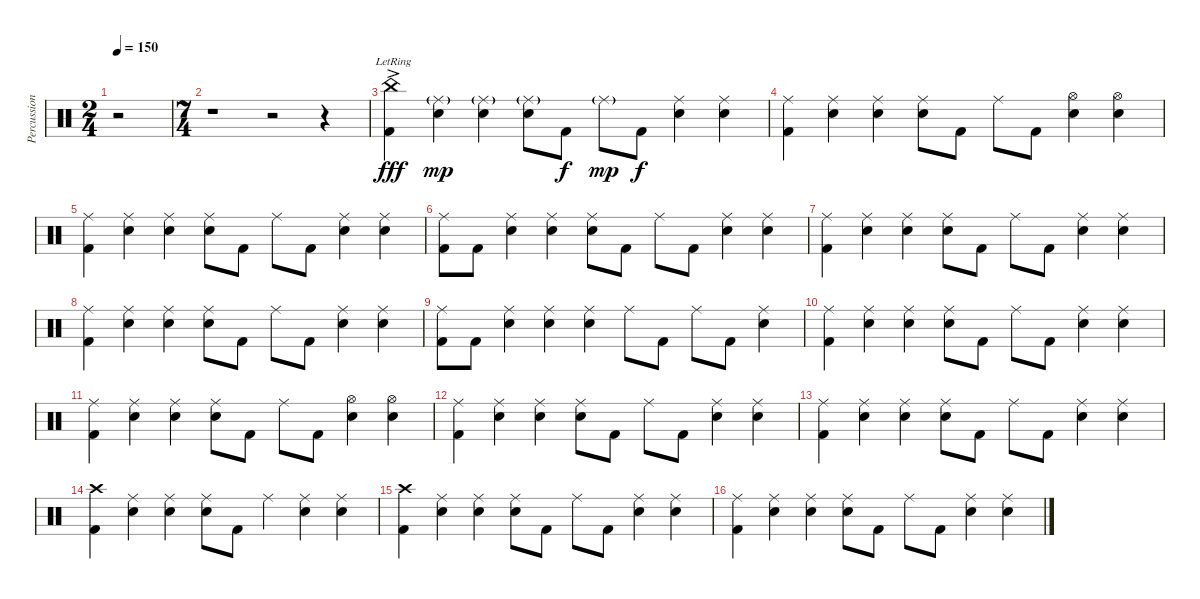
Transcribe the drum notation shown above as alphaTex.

\track ("Percussion" "Percussion") {instrument percussion}
\staff {score}
\articulation defaults
\ts (2 4)
\tempo 150
\clef neutral
\ks c
r.2{dy fff} |
\ts (7 4)
r.1 r.2 r.4 |
("Kick (hit) 2" "China (hit)"{ac lr}).4 ("Snare (hit) 2" "Ride (middle)"{g}).4{dy mp} ("Snare (hit) 2" "Ride (middle)"{g}).4 ("Snare (hit) 2" "Ride (middle)"{g}).8 "Kick (hit) 2".8{dy f} "Ride (middle)"{g}.8{dy mp} "Kick (hit) 2".8{dy f} ("Snare (hit) 2" "Ride (middle)").4 ("Snare (hit) 2" "Ride (middle)").4 |
("Kick (hit) 2" "Ride (middle)").4 ("Snare (hit) 2" "Ride (middle)").4 ("Snare (hit) 2" "Ride (middle)").4 ("Snare (hit) 2" "Ride (middle)").8 "Kick (hit) 2".8 "Ride (middle)".8 "Kick (hit) 2".8 ("Snare (hit) 2" "Hi-Hat (open)").4 ("Snare (hit) 2" "Hi-Hat (open)").4 |
("Kick (hit) 2" "Ride (middle)").4 ("Snare (hit) 2" "Ride (middle)").4 ("Snare (hit) 2" "Ride (middle)").4 ("Snare (hit) 2" "Ride (middle)").8 "Kick (hit) 2".8 "Ride (middle)".8 "Kick (hit) 2".8 ("Snare (hit) 2" "Ride (middle)").4 ("Snare (hit) 2" "Ride (middle)").4 |
("Kick (hit) 2" "Ride (middle)").8 "Kick (hit) 2".8 ("Snare (hit) 2" "Ride (middle)").4 ("Snare (hit) 2" "Ride (middle)").4 ("Snare (hit) 2" "Ride (middle)").8 "Kick (hit) 2".8 "Ride (middle)".8 "Kick (hit) 2".8 ("Snare (hit) 2" "Ride (middle)").4 ("Snare (hit) 2" "Ride (middle)").4 |
("Kick (hit) 2" "Ride (middle)").4 ("Snare (hit) 2" "Ride (middle)").4 ("Snare (hit) 2" "Ride (middle)").4 ("Snare (hit) 2" "Ride (middle)").8 "Kick (hit) 2".8 "Ride (middle)".8 "Kick (hit) 2".8 ("Snare (hit) 2" "Ride (middle)").4 ("Snare (hit) 2" "Ride (middle)").4 |
("Kick (hit) 2" "Ride (middle)").4 ("Snare (hit) 2" "Ride (middle)").4 ("Snare (hit) 2" "Ride (middle)").4 ("Snare (hit) 2" "Ride (middle)").8 "Kick (hit) 2".8 "Ride (middle)".8 "Kick (hit) 2".8 ("Snare (hit) 2" "Ride (middle)").4 ("Snare (hit) 2" "Ride (middle)").4 |
("Kick (hit) 2" "Ride (middle)").8 "Kick (hit) 2".8 ("Snare (hit) 2" "Ride (middle)").4 ("Snare (hit) 2" "Ride (middle)").4 ("Snare (hit) 2" "Ride (middle)").4 "Ride (middle)".8 "Kick (hit) 2".8 "Ride (middle)".8 "Kick (hit) 2".8 ("Snare (hit) 2" "Ride (middle)").4 |
("Kick (hit) 2" "Ride (middle)").4 ("Snare (hit) 2" "Ride (middle)").4 ("Snare (hit) 2" "Ride (middle)").4 ("Snare (hit) 2" "Ride (middle)").8 "Kick (hit) 2".8 "Ride (middle)".8 "Kick (hit) 2".8 ("Snare (hit) 2" "Ride (middle)").4 ("Snare (hit) 2" "Ride (middle)").4 |
("Kick (hit) 2" "Ride (middle)").4 ("Snare (hit) 2" "Ride (middle)").4 ("Snare (hit) 2" "Ride (middle)").4 ("Snare (hit) 2" "Ride (middle)").8 "Kick (hit) 2".8 "Ride (middle)".8 "Kick (hit) 2".8 ("Snare (hit) 2" "Hi-Hat (open)").4 ("Snare (hit) 2" "Hi-Hat (open)").4 |
("Kick (hit) 2" "Ride (middle)").4 ("Snare (hit) 2" "Ride (middle)").4 ("Snare (hit) 2" "Ride (middle)").4 ("Snare (hit) 2" "Ride (middle)").8 "Kick (hit) 2".8 "Ride (middle)".8 "Kick (hit) 2".8 ("Snare (hit) 2" "Ride (middle)").4 ("Snare (hit) 2" "Ride (middle)").4 |
("Kick (hit) 2" "Ride (middle)").4 ("Snare (hit) 2" "Ride (middle)").4 ("Snare (hit) 2" "Ride (middle)").4 ("Snare (hit) 2" "Ride (middle)").8 "Kick (hit) 2".8 "Ride (middle)".8 "Kick (hit) 2".8 ("Snare (hit) 2" "Ride (middle)").4 ("Snare (hit) 2" "Ride (middle)").4 |
("Kick (hit) 2" "Crash high (hit)").4 ("Snare (hit) 2" "Ride (middle)").4 ("Snare (hit) 2" "Ride (middle)").4 ("Snare (hit) 2" "Ride (middle)").8 "Kick (hit) 2".8 "Ride (middle)".4 ("Snare (hit) 2" "Ride (middle)").4 ("Snare (hit) 2" "Ride (middle)").4 |
("Kick (hit) 2" "Crash high (hit)").4 ("Snare (hit) 2" "Ride (middle)").4 ("Snare (hit) 2" "Ride (middle)").4 ("Snare (hit) 2" "Ride (middle)").8 "Kick (hit) 2".8 "Ride (middle)".8 "Kick (hit) 2".8 ("Snare (hit) 2" "Ride (middle)").4 ("Snare (hit) 2" "Ride (middle)").4 |
("Kick (hit) 2" "Ride (middle)").4 ("Snare (hit) 2" "Ride (middle)").4 ("Snare (hit) 2" "Ride (middle)").4 ("Snare (hit) 2" "Ride (middle)").8 "Kick (hit) 2".8 "Ride (middle)".8 "Kick (hit) 2".8 ("Snare (hit) 2" "Ride (middle)").4 ("Snare (hit) 2" "Ride (middle)").4
